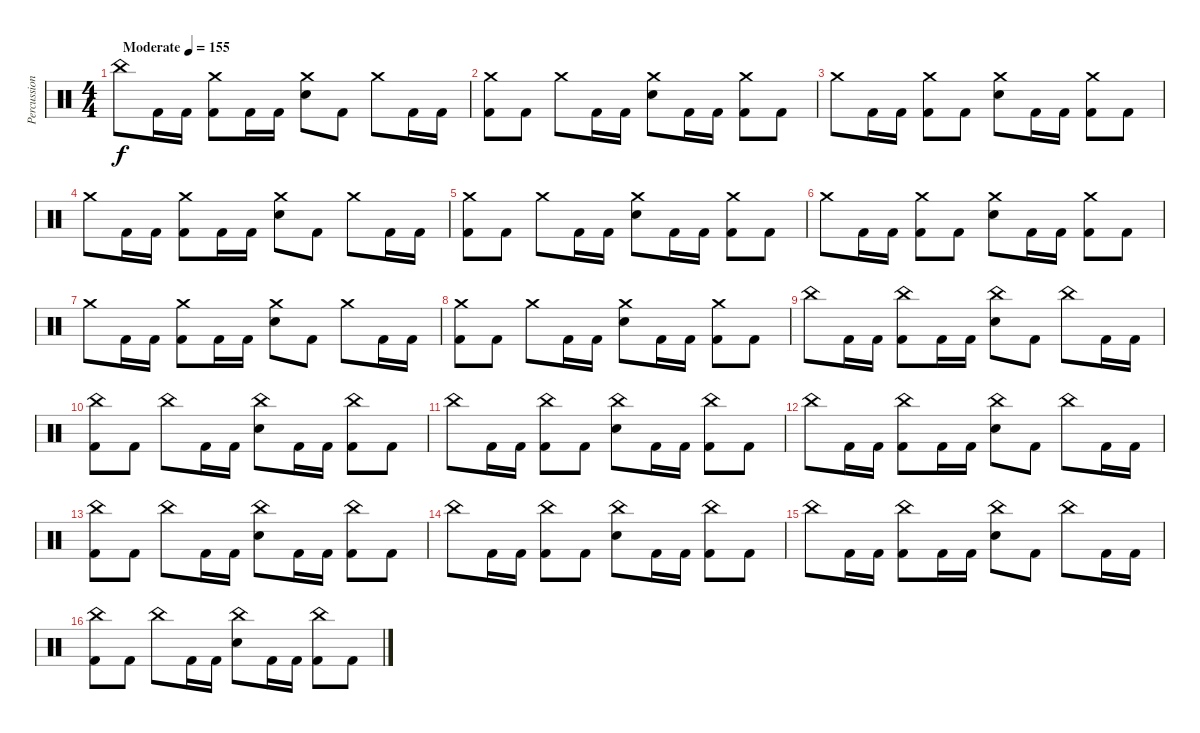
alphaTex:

\track ("Percussion" "Percussion") {instrument percussion}
\staff {score}
\articulation defaults
\ts (4 4)
\tempo (155 "Moderate")
\clef neutral
\ks c "China (hit)".8{dy f} "Kick (hit) 2".16 "Kick (hit) 2".16
("Crash medium (hit)" "Kick (hit) 2").8 "Kick (hit) 2".16 "Kick (hit) 2".16 ("Crash medium (hit)" "Electric Snare (hit)").8 "Kick (hit) 2".8 "Crash medium (hit)".8 "Kick (hit) 2".16 "Kick (hit) 2".16 |
("Crash medium (hit)" "Kick (hit) 2").8 "Kick (hit) 2".8 "Crash medium (hit)".8 "Kick (hit) 2".16 "Kick (hit) 2".16 ("Crash medium (hit)" "Electric Snare (hit)").8 "Kick (hit) 2".16 "Kick (hit) 2".16 ("Crash medium (hit)" "Kick (hit) 2").8 "Kick (hit) 2".8 |
"Crash medium (hit)".8 "Kick (hit) 2".16 "Kick (hit) 2".16 ("Crash medium (hit)" "Kick (hit) 2").8 "Kick (hit) 2".8 ("Crash medium (hit)" "Electric Snare (hit)").8 "Kick (hit) 2".16 "Kick (hit) 2".16 ("Crash medium (hit)" "Kick (hit) 2").8 "Kick (hit) 2".8 |
"Crash medium (hit)".8 "Kick (hit) 2".16 "Kick (hit) 2".16 ("Crash medium (hit)" "Kick (hit) 2").8 "Kick (hit) 2".16 "Kick (hit) 2".16 ("Crash medium (hit)" "Electric Snare (hit)").8 "Kick (hit) 2".8 "Crash medium (hit)".8 "Kick (hit) 2".16 "Kick (hit) 2".16 |
("Crash medium (hit)" "Kick (hit) 2").8 "Kick (hit) 2".8 "Crash medium (hit)".8 "Kick (hit) 2".16 "Kick (hit) 2".16 ("Crash medium (hit)" "Electric Snare (hit)").8 "Kick (hit) 2".16 "Kick (hit) 2".16 ("Crash medium (hit)" "Kick (hit) 2").8 "Kick (hit) 2".8 |
"Crash medium (hit)".8 "Kick (hit) 2".16 "Kick (hit) 2".16 ("Crash medium (hit)" "Kick (hit) 2").8 "Kick (hit) 2".8 ("Crash medium (hit)" "Electric Snare (hit)").8 "Kick (hit) 2".16 "Kick (hit) 2".16 ("Crash medium (hit)" "Kick (hit) 2").8 "Kick (hit) 2".8 |
"Crash medium (hit)".8 "Kick (hit) 2".16 "Kick (hit) 2".16 ("Crash medium (hit)" "Kick (hit) 2").8 "Kick (hit) 2".16 "Kick (hit) 2".16 ("Crash medium (hit)" "Electric Snare (hit)").8 "Kick (hit) 2".8 "Crash medium (hit)".8 "Kick (hit) 2".16 "Kick (hit) 2".16 |
("Crash medium (hit)" "Kick (hit) 2").8 "Kick (hit) 2".8 "Crash medium (hit)".8 "Kick (hit) 2".16 "Kick (hit) 2".16 ("Crash medium (hit)" "Electric Snare (hit)").8 "Kick (hit) 2".16 "Kick (hit) 2".16 ("Crash medium (hit)" "Kick (hit) 2").8 "Kick (hit) 2".8 |
"China (hit)".8 "Kick (hit) 2".16 "Kick (hit) 2".16 ("China (hit)" "Kick (hit) 2").8 "Kick (hit) 2".16 "Kick (hit) 2".16 ("China (hit)" "Electric Snare (hit)").8 "Kick (hit) 2".8 "China (hit)".8 "Kick (hit) 2".16 "Kick (hit) 2".16 |
("China (hit)" "Kick (hit) 2").8 "Kick (hit) 2".8 "China (hit)".8 "Kick (hit) 2".16 "Kick (hit) 2".16 ("China (hit)" "Electric Snare (hit)").8 "Kick (hit) 2".16 "Kick (hit) 2".16 ("China (hit)" "Kick (hit) 2").8 "Kick (hit) 2".8 |
"China (hit)".8 "Kick (hit) 2".16 "Kick (hit) 2".16 ("China (hit)" "Kick (hit) 2").8 "Kick (hit) 2".8 ("China (hit)" "Electric Snare (hit)").8 "Kick (hit) 2".16 "Kick (hit) 2".16 ("China (hit)" "Kick (hit) 2").8 "Kick (hit) 2".8 |
"China (hit)".8 "Kick (hit) 2".16 "Kick (hit) 2".16 ("China (hit)" "Kick (hit) 2").8 "Kick (hit) 2".16 "Kick (hit) 2".16 ("China (hit)" "Electric Snare (hit)").8 "Kick (hit) 2".8 "China (hit)".8 "Kick (hit) 2".16 "Kick (hit) 2".16 |
("China (hit)" "Kick (hit) 2").8 "Kick (hit) 2".8 "China (hit)".8 "Kick (hit) 2".16 "Kick (hit) 2".16 ("China (hit)" "Electric Snare (hit)").8 "Kick (hit) 2".16 "Kick (hit) 2".16 ("China (hit)" "Kick (hit) 2").8 "Kick (hit) 2".8 |
"China (hit)".8 "Kick (hit) 2".16 "Kick (hit) 2".16 ("China (hit)" "Kick (hit) 2").8 "Kick (hit) 2".8 ("China (hit)" "Electric Snare (hit)").8 "Kick (hit) 2".16 "Kick (hit) 2".16 ("China (hit)" "Kick (hit) 2").8 "Kick (hit) 2".8 |
"China (hit)".8 "Kick (hit) 2".16 "Kick (hit) 2".16 ("China (hit)" "Kick (hit) 2").8 "Kick (hit) 2".16 "Kick (hit) 2".16 ("China (hit)" "Electric Snare (hit)").8 "Kick (hit) 2".8 "China (hit)".8 "Kick (hit) 2".16 "Kick (hit) 2".16 |
("China (hit)" "Kick (hit) 2").8 "Kick (hit) 2".8 "China (hit)".8 "Kick (hit) 2".16 "Kick (hit) 2".16 ("China (hit)" "Electric Snare (hit)").8 "Kick (hit) 2".16 "Kick (hit) 2".16 ("China (hit)" "Kick (hit) 2").8 "Kick (hit) 2".8
